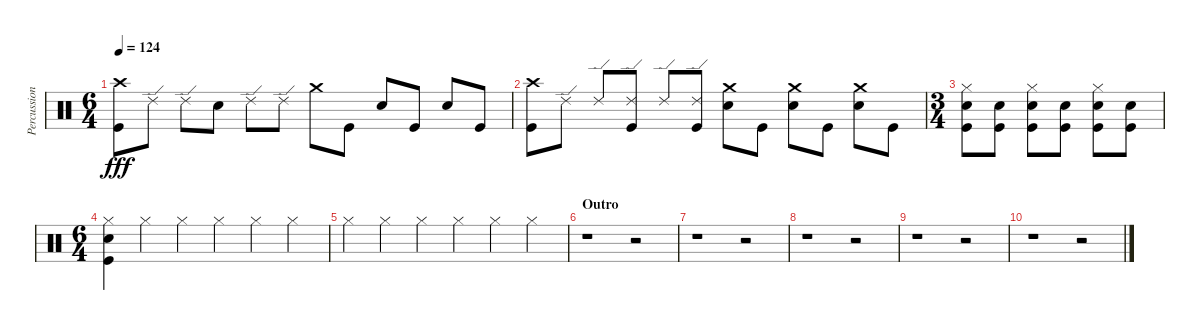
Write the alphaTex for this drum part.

\track ("Percussion" "Percussion") {instrument percussion}
\staff {score}
\articulation defaults
\ts (6 4)
\tempo 124
\clef neutral
\ks c
("Crash high (hit)" "Kick (hit)").8{dy fff} "Ride (edge) 2".8 "Ride (edge) 2".8 "Snare (hit) 2".8 "Ride (edge) 2".8 "Ride (edge) 2".8 "Crash medium (hit)".8 "Kick (hit)".8 "Snare (hit) 2".8 "Kick (hit)".8 "Snare (hit) 2".8 "Kick (hit)".8 |
("Crash high (hit)" "Kick (hit)").8 "Ride (edge) 2".8 "Ride (edge) 2".8 ("Ride (edge) 2" "Kick (hit)").8 "Ride (edge) 2".8 ("Ride (edge) 2" "Kick (hit)").8 ("Crash medium (hit)" "Snare (hit) 2").8 "Kick (hit)".8 ("Crash medium (hit)" "Snare (hit) 2").8 "Kick (hit)".8 ("Crash medium (hit)" "Snare (hit) 2").8 "Kick (hit)".8 |
\ts (3 4)
("Hi-Hat (closed)" "Snare (hit) 2" "Kick (hit)").8 ("Snare (hit) 2" "Kick (hit)").8 ("Hi-Hat (closed)" "Snare (hit) 2" "Kick (hit)").8 ("Snare (hit) 2" "Kick (hit)").8 ("Hi-Hat (closed)" "Snare (hit) 2" "Kick (hit)").8 ("Snare (hit) 2" "Kick (hit)").8 |
\ts (6 4)
("Hi-Hat (closed)" "Snare (hit) 2" "Kick (hit)").4 "Hi-Hat (closed)".4 "Hi-Hat (closed)".4 "Hi-Hat (closed)".4 "Hi-Hat (closed)".4 "Hi-Hat (closed)".4 |
"Hi-Hat (closed)".4 "Hi-Hat (closed)".4 "Hi-Hat (closed)".4 "Hi-Hat (closed)".4 "Hi-Hat (closed)".4 "Hi-Hat (closed)".4 |
\section ("" "Outro")
r.1 r.2 |
r.1 r.2 |
r.1 r.2 |
r.1 r.2 |
r.1 r.2
